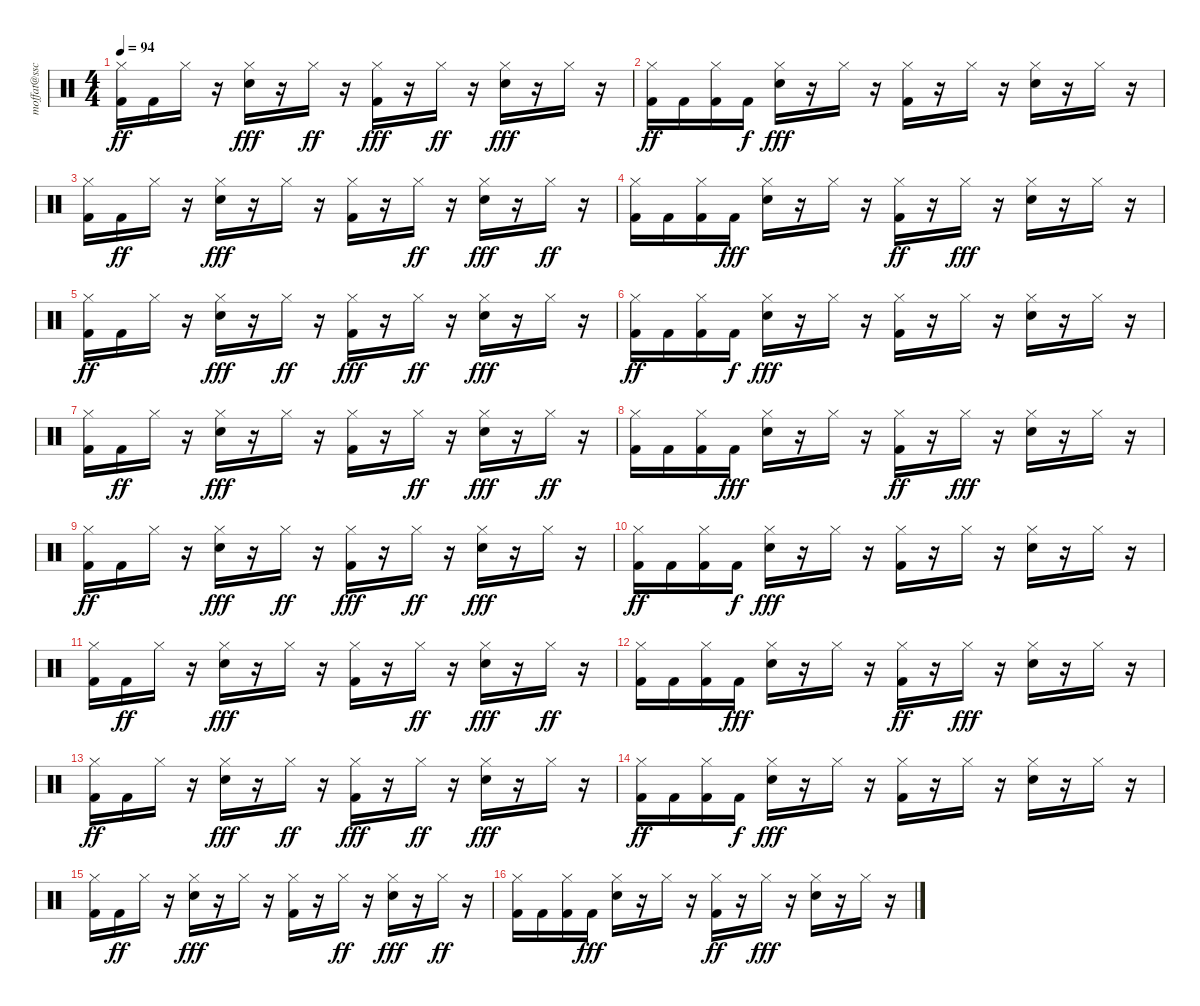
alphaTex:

\track ("moffat@sscl." "moffat@ssc") {instrument percussion}
\staff {score}
\articulation defaults
\ts (4 4)
\tempo 94
\clef neutral
\ks c
("Kick (hit) 2" "Hi-Hat (closed)").16{dy ff} "Kick (hit) 2".16 "Hi-Hat (closed)".16 r.16 ("Hi-Hat (closed)" "Snare (hit) 2").16{dy fff} r.16 "Hi-Hat (closed)".16{dy ff} r.16 ("Kick (hit) 2" "Hi-Hat (closed)").16{dy fff} r.16 "Hi-Hat (closed)".16{dy ff} r.16 ("Snare (hit) 2" "Hi-Hat (closed)").16{dy fff} r.16 "Hi-Hat (closed)".16 r.16 |
("Hi-Hat (closed)" "Kick (hit) 2").16{dy ff} "Kick (hit) 2".16 ("Hi-Hat (closed)" "Kick (hit) 2").16 "Kick (hit) 2".16{dy f} ("Hi-Hat (closed)" "Snare (hit) 2").16{dy fff} r.16 "Hi-Hat (closed)".16 r.16 ("Hi-Hat (closed)" "Kick (hit) 2").16 r.16 "Hi-Hat (closed)".16 r.16 ("Snare (hit) 2" "Hi-Hat (closed)").16 r.16 "Hi-Hat (closed)".16 r.16 |
("Kick (hit) 2" "Hi-Hat (closed)").16 "Kick (hit) 2".16{dy ff} "Hi-Hat (closed)".16 r.16 ("Snare (hit) 2" "Hi-Hat (closed)").16{dy fff} r.16 "Hi-Hat (closed)".16 r.16 ("Kick (hit) 2" "Hi-Hat (closed)").16 r.16 "Hi-Hat (closed)".16{dy ff} r.16 ("Snare (hit) 2" "Hi-Hat (closed)").16{dy fff} r.16 "Hi-Hat (closed)".16{dy ff} r.16 |
("Hi-Hat (closed)" "Kick (hit) 2").16 "Kick (hit) 2".16 ("Hi-Hat (closed)" "Kick (hit) 2").16 "Kick (hit) 2".16{dy fff} ("Hi-Hat (closed)" "Snare (hit) 2").16 r.16 "Hi-Hat (closed)".16 r.16 ("Hi-Hat (closed)" "Kick (hit) 2").16{dy ff} r.16 "Hi-Hat (closed)".16{dy fff} r.16 ("Hi-Hat (closed)" "Snare (hit) 2").16 r.16 "Hi-Hat (closed)".16 r.16 |
("Kick (hit) 2" "Hi-Hat (closed)").16{dy ff} "Kick (hit) 2".16 "Hi-Hat (closed)".16 r.16 ("Hi-Hat (closed)" "Snare (hit) 2").16{dy fff} r.16 "Hi-Hat (closed)".16{dy ff} r.16 ("Kick (hit) 2" "Hi-Hat (closed)").16{dy fff} r.16 "Hi-Hat (closed)".16{dy ff} r.16 ("Snare (hit) 2" "Hi-Hat (closed)").16{dy fff} r.16 "Hi-Hat (closed)".16 r.16 |
("Hi-Hat (closed)" "Kick (hit) 2").16{dy ff} "Kick (hit) 2".16 ("Hi-Hat (closed)" "Kick (hit) 2").16 "Kick (hit) 2".16{dy f} ("Hi-Hat (closed)" "Snare (hit) 2").16{dy fff} r.16 "Hi-Hat (closed)".16 r.16 ("Hi-Hat (closed)" "Kick (hit) 2").16 r.16 "Hi-Hat (closed)".16 r.16 ("Snare (hit) 2" "Hi-Hat (closed)").16 r.16 "Hi-Hat (closed)".16 r.16 |
("Kick (hit) 2" "Hi-Hat (closed)").16 "Kick (hit) 2".16{dy ff} "Hi-Hat (closed)".16 r.16 ("Snare (hit) 2" "Hi-Hat (closed)").16{dy fff} r.16 "Hi-Hat (closed)".16 r.16 ("Kick (hit) 2" "Hi-Hat (closed)").16 r.16 "Hi-Hat (closed)".16{dy ff} r.16 ("Snare (hit) 2" "Hi-Hat (closed)").16{dy fff} r.16 "Hi-Hat (closed)".16{dy ff} r.16 |
("Hi-Hat (closed)" "Kick (hit) 2").16 "Kick (hit) 2".16 ("Hi-Hat (closed)" "Kick (hit) 2").16 "Kick (hit) 2".16{dy fff} ("Hi-Hat (closed)" "Snare (hit) 2").16 r.16 "Hi-Hat (closed)".16 r.16 ("Hi-Hat (closed)" "Kick (hit) 2").16{dy ff} r.16 "Hi-Hat (closed)".16{dy fff} r.16 ("Hi-Hat (closed)" "Snare (hit) 2").16 r.16 "Hi-Hat (closed)".16 r.16 |
("Kick (hit) 2" "Hi-Hat (closed)").16{dy ff} "Kick (hit) 2".16 "Hi-Hat (closed)".16 r.16 ("Hi-Hat (closed)" "Snare (hit) 2").16{dy fff} r.16 "Hi-Hat (closed)".16{dy ff} r.16 ("Kick (hit) 2" "Hi-Hat (closed)").16{dy fff} r.16 "Hi-Hat (closed)".16{dy ff} r.16 ("Snare (hit) 2" "Hi-Hat (closed)").16{dy fff} r.16 "Hi-Hat (closed)".16 r.16 |
("Hi-Hat (closed)" "Kick (hit) 2").16{dy ff} "Kick (hit) 2".16 ("Hi-Hat (closed)" "Kick (hit) 2").16 "Kick (hit) 2".16{dy f} ("Hi-Hat (closed)" "Snare (hit) 2").16{dy fff} r.16 "Hi-Hat (closed)".16 r.16 ("Hi-Hat (closed)" "Kick (hit) 2").16 r.16 "Hi-Hat (closed)".16 r.16 ("Snare (hit) 2" "Hi-Hat (closed)").16 r.16 "Hi-Hat (closed)".16 r.16 |
("Kick (hit) 2" "Hi-Hat (closed)").16 "Kick (hit) 2".16{dy ff} "Hi-Hat (closed)".16 r.16 ("Snare (hit) 2" "Hi-Hat (closed)").16{dy fff} r.16 "Hi-Hat (closed)".16 r.16 ("Kick (hit) 2" "Hi-Hat (closed)").16 r.16 "Hi-Hat (closed)".16{dy ff} r.16 ("Snare (hit) 2" "Hi-Hat (closed)").16{dy fff} r.16 "Hi-Hat (closed)".16{dy ff} r.16 |
("Hi-Hat (closed)" "Kick (hit) 2").16 "Kick (hit) 2".16 ("Hi-Hat (closed)" "Kick (hit) 2").16 "Kick (hit) 2".16{dy fff} ("Hi-Hat (closed)" "Snare (hit) 2").16 r.16 "Hi-Hat (closed)".16 r.16 ("Hi-Hat (closed)" "Kick (hit) 2").16{dy ff} r.16 "Hi-Hat (closed)".16{dy fff} r.16 ("Hi-Hat (closed)" "Snare (hit) 2").16 r.16 "Hi-Hat (closed)".16 r.16 |
("Kick (hit) 2" "Hi-Hat (closed)").16{dy ff} "Kick (hit) 2".16 "Hi-Hat (closed)".16 r.16 ("Hi-Hat (closed)" "Snare (hit) 2").16{dy fff} r.16 "Hi-Hat (closed)".16{dy ff} r.16 ("Kick (hit) 2" "Hi-Hat (closed)").16{dy fff} r.16 "Hi-Hat (closed)".16{dy ff} r.16 ("Snare (hit) 2" "Hi-Hat (closed)").16{dy fff} r.16 "Hi-Hat (closed)".16 r.16 |
("Hi-Hat (closed)" "Kick (hit) 2").16{dy ff} "Kick (hit) 2".16 ("Hi-Hat (closed)" "Kick (hit) 2").16 "Kick (hit) 2".16{dy f} ("Hi-Hat (closed)" "Snare (hit) 2").16{dy fff} r.16 "Hi-Hat (closed)".16 r.16 ("Hi-Hat (closed)" "Kick (hit) 2").16 r.16 "Hi-Hat (closed)".16 r.16 ("Snare (hit) 2" "Hi-Hat (closed)").16 r.16 "Hi-Hat (closed)".16 r.16 |
("Kick (hit) 2" "Hi-Hat (closed)").16 "Kick (hit) 2".16{dy ff} "Hi-Hat (closed)".16 r.16 ("Snare (hit) 2" "Hi-Hat (closed)").16{dy fff} r.16 "Hi-Hat (closed)".16 r.16 ("Kick (hit) 2" "Hi-Hat (closed)").16 r.16 "Hi-Hat (closed)".16{dy ff} r.16 ("Snare (hit) 2" "Hi-Hat (closed)").16{dy fff} r.16 "Hi-Hat (closed)".16{dy ff} r.16 |
("Hi-Hat (closed)" "Kick (hit) 2").16 "Kick (hit) 2".16 ("Hi-Hat (closed)" "Kick (hit) 2").16 "Kick (hit) 2".16{dy fff} ("Hi-Hat (closed)" "Snare (hit) 2").16 r.16 "Hi-Hat (closed)".16 r.16 ("Hi-Hat (closed)" "Kick (hit) 2").16{dy ff} r.16 "Hi-Hat (closed)".16{dy fff} r.16 ("Hi-Hat (closed)" "Snare (hit) 2").16 r.16 "Hi-Hat (closed)".16 r.16
